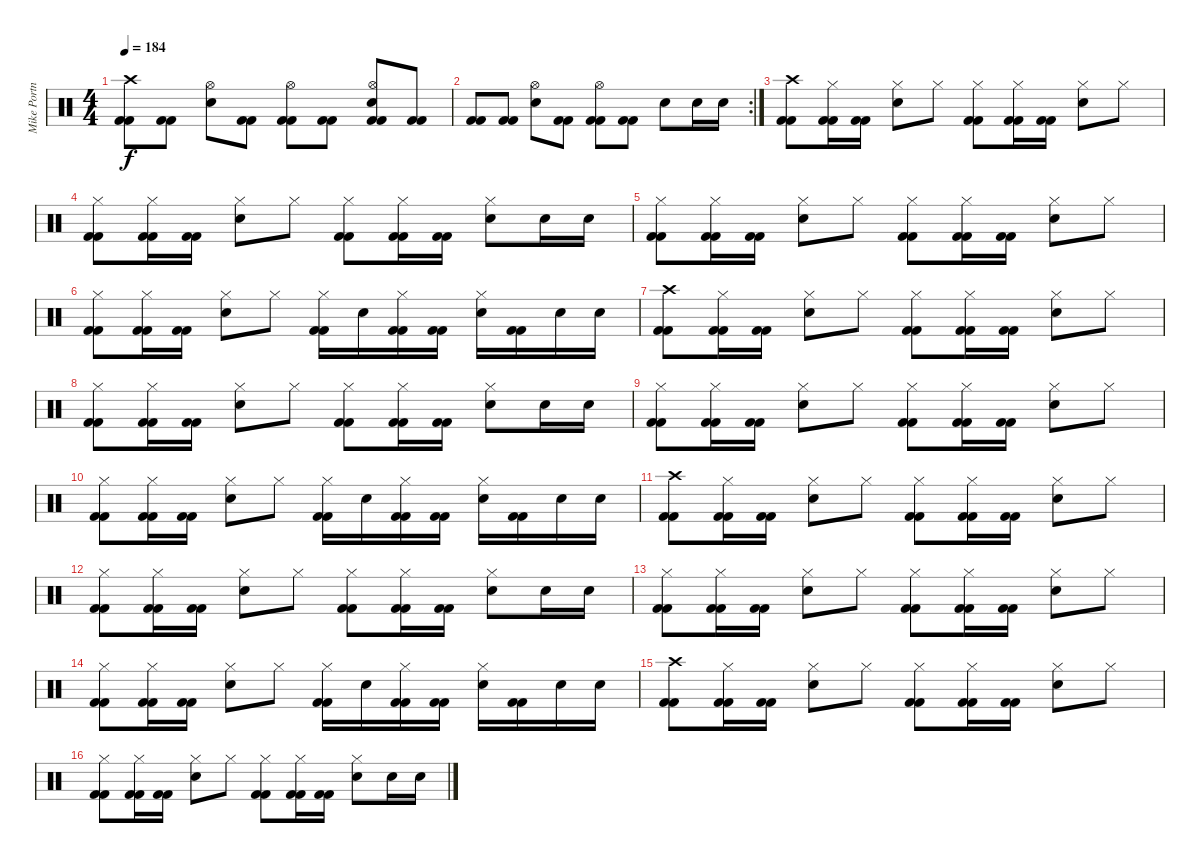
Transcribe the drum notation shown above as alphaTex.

\track ("Mike Portnoy - Drum" "Mike Portn") {instrument percussion}
\staff {score}
\articulation defaults
\ts (4 4)
\tempo 184
\clef neutral
\ks c
("Crash high (hit)" "Kick (hit) 2" "Kick (hit) 2").8{dy f} ("Kick (hit) 2" "Kick (hit) 2").8 ("Hi-Hat (open)" "Snare (hit) 2").8 ("Kick (hit) 2" "Kick (hit) 2").8 ("Hi-Hat (open)" "Kick (hit) 2" "Kick (hit) 2").8 ("Kick (hit) 2" "Kick (hit) 2").8 ("Hi-Hat (open)" "Snare (hit) 2" "Kick (hit) 2" "Kick (hit) 2").8 ("Kick (hit) 2" "Kick (hit) 2").8 |
\rc 2
("Kick (hit) 2" "Kick (hit) 2").8 ("Kick (hit) 2" "Kick (hit) 2").8 ("Hi-Hat (open)" "Snare (hit) 2").8 ("Kick (hit) 2" "Kick (hit) 2").8 ("Hi-Hat (open)" "Kick (hit) 2" "Kick (hit) 2").8 ("Kick (hit) 2" "Kick (hit) 2").8 "Snare (hit) 2".8 "Snare (hit) 2".16 "Snare (hit) 2".16 |
("Crash high (hit)" "Kick (hit) 2" "Kick (hit) 2").8 ("Hi-Hat (closed)" "Kick (hit) 2" "Kick (hit) 2").16 ("Kick (hit) 2" "Kick (hit) 2").16 ("Hi-Hat (closed)" "Snare (hit) 2").8 "Hi-Hat (closed)".8 ("Hi-Hat (closed)" "Kick (hit) 2" "Kick (hit) 2").8 ("Hi-Hat (closed)" "Kick (hit) 2" "Kick (hit) 2").16 ("Kick (hit) 2" "Kick (hit) 2").16 ("Hi-Hat (closed)" "Snare (hit) 2").8 "Hi-Hat (closed)".8 |
("Hi-Hat (closed)" "Kick (hit) 2" "Kick (hit) 2").8 ("Hi-Hat (closed)" "Kick (hit) 2" "Kick (hit) 2").16 ("Kick (hit) 2" "Kick (hit) 2").16 ("Hi-Hat (closed)" "Snare (hit) 2").8 "Hi-Hat (closed)".8 ("Hi-Hat (closed)" "Kick (hit) 2" "Kick (hit) 2").8 ("Hi-Hat (closed)" "Kick (hit) 2" "Kick (hit) 2").16 ("Kick (hit) 2" "Kick (hit) 2").16 ("Hi-Hat (closed)" "Snare (hit) 2").8 "Snare (hit) 2".16 "Snare (hit) 2".16 |
("Hi-Hat (closed)" "Kick (hit) 2" "Kick (hit) 2").8 ("Hi-Hat (closed)" "Kick (hit) 2" "Kick (hit) 2").16 ("Kick (hit) 2" "Kick (hit) 2").16 ("Hi-Hat (closed)" "Snare (hit) 2").8 "Hi-Hat (closed)".8 ("Hi-Hat (closed)" "Kick (hit) 2" "Kick (hit) 2").8 ("Hi-Hat (closed)" "Kick (hit) 2" "Kick (hit) 2").16 ("Kick (hit) 2" "Kick (hit) 2").16 ("Hi-Hat (closed)" "Snare (hit) 2").8 "Hi-Hat (closed)".8 |
("Hi-Hat (closed)" "Kick (hit) 2" "Kick (hit) 2").8 ("Hi-Hat (closed)" "Kick (hit) 2" "Kick (hit) 2").16 ("Kick (hit) 2" "Kick (hit) 2").16 ("Hi-Hat (closed)" "Snare (hit) 2").8 "Hi-Hat (closed)".8 ("Hi-Hat (closed)" "Kick (hit) 2" "Kick (hit) 2").16 "Snare (hit) 2".16 ("Hi-Hat (closed)" "Kick (hit) 2" "Kick (hit) 2").16 ("Kick (hit) 2" "Kick (hit) 2").16 ("Hi-Hat (closed)" "Snare (hit) 2").16 ("Kick (hit) 2" "Kick (hit) 2").16 "Snare (hit) 2".16 "Snare (hit) 2".16 |
("Crash high (hit)" "Kick (hit) 2" "Kick (hit) 2").8 ("Hi-Hat (closed)" "Kick (hit) 2" "Kick (hit) 2").16 ("Kick (hit) 2" "Kick (hit) 2").16 ("Hi-Hat (closed)" "Snare (hit) 2").8 "Hi-Hat (closed)".8 ("Hi-Hat (closed)" "Kick (hit) 2" "Kick (hit) 2").8 ("Hi-Hat (closed)" "Kick (hit) 2" "Kick (hit) 2").16 ("Kick (hit) 2" "Kick (hit) 2").16 ("Hi-Hat (closed)" "Snare (hit) 2").8 "Hi-Hat (closed)".8 |
("Hi-Hat (closed)" "Kick (hit) 2" "Kick (hit) 2").8 ("Hi-Hat (closed)" "Kick (hit) 2" "Kick (hit) 2").16 ("Kick (hit) 2" "Kick (hit) 2").16 ("Hi-Hat (closed)" "Snare (hit) 2").8 "Hi-Hat (closed)".8 ("Hi-Hat (closed)" "Kick (hit) 2" "Kick (hit) 2").8 ("Hi-Hat (closed)" "Kick (hit) 2" "Kick (hit) 2").16 ("Kick (hit) 2" "Kick (hit) 2").16 ("Hi-Hat (closed)" "Snare (hit) 2").8 "Snare (hit) 2".16 "Snare (hit) 2".16 |
("Hi-Hat (closed)" "Kick (hit) 2" "Kick (hit) 2").8 ("Hi-Hat (closed)" "Kick (hit) 2" "Kick (hit) 2").16 ("Kick (hit) 2" "Kick (hit) 2").16 ("Hi-Hat (closed)" "Snare (hit) 2").8 "Hi-Hat (closed)".8 ("Hi-Hat (closed)" "Kick (hit) 2" "Kick (hit) 2").8 ("Hi-Hat (closed)" "Kick (hit) 2" "Kick (hit) 2").16 ("Kick (hit) 2" "Kick (hit) 2").16 ("Hi-Hat (closed)" "Snare (hit) 2").8 "Hi-Hat (closed)".8 |
("Hi-Hat (closed)" "Kick (hit) 2" "Kick (hit) 2").8 ("Hi-Hat (closed)" "Kick (hit) 2" "Kick (hit) 2").16 ("Kick (hit) 2" "Kick (hit) 2").16 ("Hi-Hat (closed)" "Snare (hit) 2").8 "Hi-Hat (closed)".8 ("Hi-Hat (closed)" "Kick (hit) 2" "Kick (hit) 2").16 "Snare (hit) 2".16 ("Hi-Hat (closed)" "Kick (hit) 2" "Kick (hit) 2").16 ("Kick (hit) 2" "Kick (hit) 2").16 ("Hi-Hat (closed)" "Snare (hit) 2").16 ("Kick (hit) 2" "Kick (hit) 2").16 "Snare (hit) 2".16 "Snare (hit) 2".16 |
("Crash high (hit)" "Kick (hit) 2" "Kick (hit) 2").8 ("Hi-Hat (closed)" "Kick (hit) 2" "Kick (hit) 2").16 ("Kick (hit) 2" "Kick (hit) 2").16 ("Hi-Hat (closed)" "Snare (hit) 2").8 "Hi-Hat (closed)".8 ("Hi-Hat (closed)" "Kick (hit) 2" "Kick (hit) 2").8 ("Hi-Hat (closed)" "Kick (hit) 2" "Kick (hit) 2").16 ("Kick (hit) 2" "Kick (hit) 2").16 ("Hi-Hat (closed)" "Snare (hit) 2").8 "Hi-Hat (closed)".8 |
("Hi-Hat (closed)" "Kick (hit) 2" "Kick (hit) 2").8 ("Hi-Hat (closed)" "Kick (hit) 2" "Kick (hit) 2").16 ("Kick (hit) 2" "Kick (hit) 2").16 ("Hi-Hat (closed)" "Snare (hit) 2").8 "Hi-Hat (closed)".8 ("Hi-Hat (closed)" "Kick (hit) 2" "Kick (hit) 2").8 ("Hi-Hat (closed)" "Kick (hit) 2" "Kick (hit) 2").16 ("Kick (hit) 2" "Kick (hit) 2").16 ("Hi-Hat (closed)" "Snare (hit) 2").8 "Snare (hit) 2".16 "Snare (hit) 2".16 |
("Hi-Hat (closed)" "Kick (hit) 2" "Kick (hit) 2").8 ("Hi-Hat (closed)" "Kick (hit) 2" "Kick (hit) 2").16 ("Kick (hit) 2" "Kick (hit) 2").16 ("Hi-Hat (closed)" "Snare (hit) 2").8 "Hi-Hat (closed)".8 ("Hi-Hat (closed)" "Kick (hit) 2" "Kick (hit) 2").8 ("Hi-Hat (closed)" "Kick (hit) 2" "Kick (hit) 2").16 ("Kick (hit) 2" "Kick (hit) 2").16 ("Hi-Hat (closed)" "Snare (hit) 2").8 "Hi-Hat (closed)".8 |
("Hi-Hat (closed)" "Kick (hit) 2" "Kick (hit) 2").8 ("Hi-Hat (closed)" "Kick (hit) 2" "Kick (hit) 2").16 ("Kick (hit) 2" "Kick (hit) 2").16 ("Hi-Hat (closed)" "Snare (hit) 2").8 "Hi-Hat (closed)".8 ("Hi-Hat (closed)" "Kick (hit) 2" "Kick (hit) 2").16 "Snare (hit) 2".16 ("Hi-Hat (closed)" "Kick (hit) 2" "Kick (hit) 2").16 ("Kick (hit) 2" "Kick (hit) 2").16 ("Hi-Hat (closed)" "Snare (hit) 2").16 ("Kick (hit) 2" "Kick (hit) 2").16 "Snare (hit) 2".16 "Snare (hit) 2".16 |
("Crash high (hit)" "Kick (hit) 2" "Kick (hit) 2").8 ("Hi-Hat (closed)" "Kick (hit) 2" "Kick (hit) 2").16 ("Kick (hit) 2" "Kick (hit) 2").16 ("Hi-Hat (closed)" "Snare (hit) 2").8 "Hi-Hat (closed)".8 ("Hi-Hat (closed)" "Kick (hit) 2" "Kick (hit) 2").8 ("Hi-Hat (closed)" "Kick (hit) 2" "Kick (hit) 2").16 ("Kick (hit) 2" "Kick (hit) 2").16 ("Hi-Hat (closed)" "Snare (hit) 2").8 "Hi-Hat (closed)".8 |
("Hi-Hat (closed)" "Kick (hit) 2" "Kick (hit) 2").8 ("Hi-Hat (closed)" "Kick (hit) 2" "Kick (hit) 2").16 ("Kick (hit) 2" "Kick (hit) 2").16 ("Hi-Hat (closed)" "Snare (hit) 2").8 "Hi-Hat (closed)".8 ("Hi-Hat (closed)" "Kick (hit) 2" "Kick (hit) 2").8 ("Hi-Hat (closed)" "Kick (hit) 2" "Kick (hit) 2").16 ("Kick (hit) 2" "Kick (hit) 2").16 ("Hi-Hat (closed)" "Snare (hit) 2").8 "Snare (hit) 2".16 "Snare (hit) 2".16
